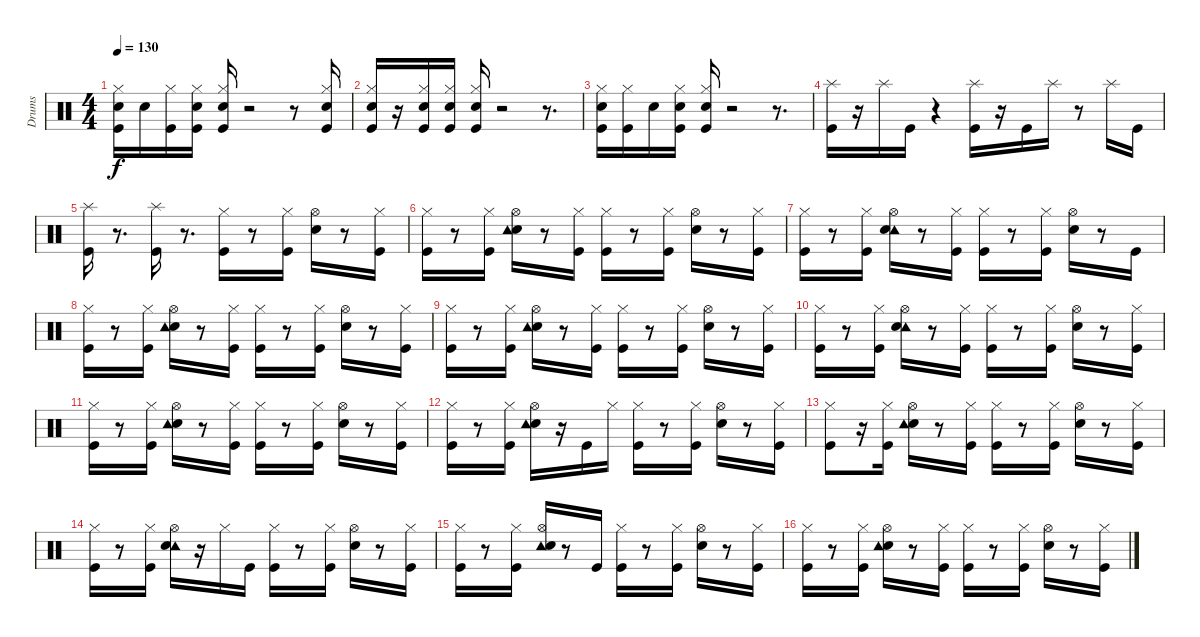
\track ("Drums" "Drums") {instrument percussion}
\staff {score}
\articulation defaults
\ts (4 4)
\tempo 130
\clef neutral
\ks c
("Electric Snare (hit)" "Hi-Hat (closed)" "Kick (hit)").16{dy f} "Electric Snare (hit)".16 ("Hi-Hat (closed)" "Kick (hit)").16 ("Electric Snare (hit)" "Hi-Hat (closed)" "Kick (hit)").16 ("Kick (hit)" "Hi-Hat (closed)" "Electric Snare (hit)").16 r.2 r.8 ("Kick (hit)" "Hi-Hat (closed)" "Electric Snare (hit)").16 |
("Electric Snare (hit)" "Hi-Hat (closed)" "Kick (hit)").16 r.16 ("Hi-Hat (closed)" "Kick (hit)" "Electric Snare (hit)").16 ("Hi-Hat (closed)" "Kick (hit)" "Electric Snare (hit)").16 ("Kick (hit)" "Electric Snare (hit)" "Hi-Hat (closed)").16 r.2 r.8{d} |
("Kick (hit)" "Hi-Hat (closed)" "Electric Snare (hit)").16 ("Kick (hit)" "Hi-Hat (closed)").16 "Electric Snare (hit)".16 ("Hi-Hat (closed)" "Kick (hit)" "Electric Snare (hit)").16 ("Kick (hit)" "Hi-Hat (closed)" "Electric Snare (hit)").16 r.2 r.8{d} |
("Kick (hit)" "Splash (hit)").16 r.16 "Splash (hit)".16 "Kick (hit)".16 r.4 ("Kick (hit)" "Splash (hit)").16 r.16 "Kick (hit)".16 "Splash (hit)".16 r.8 "Splash (hit)".16 "Kick (hit)".16 |
("Kick (hit)" "Splash (hit)").16 r.8{d} ("Kick (hit)" "Splash (hit)").16 r.8{d} ("Hi-Hat (closed)" "Kick (hit)").16 r.8 ("Kick (hit)" "Hi-Hat (closed)").16 ("Electric Snare (hit)" "Hi-Hat (open)").16 r.8 ("Kick (hit)" "Hi-Hat (closed)").16 |
("Kick (hit)" "Hi-Hat (closed)").16 r.8 ("Kick (hit)" "Hi-Hat (closed)").16 ("Electric Snare (hit)" "Tambourine (hit)" "Hi-Hat (open)").16 r.8 ("Kick (hit)" "Hi-Hat (closed)").16 ("Kick (hit)" "Hi-Hat (closed)").16 r.8 ("Kick (hit)" "Hi-Hat (closed)").16 ("Hi-Hat (open)" "Electric Snare (hit)").16 r.8 ("Kick (hit)" "Hi-Hat (closed)").16 |
("Kick (hit)" "Hi-Hat (closed)").16 r.8 ("Hi-Hat (closed)" "Kick (hit)").16 ("Tambourine (hit)" "Electric Snare (hit)" "Hi-Hat (open)").16 r.8 ("Hi-Hat (closed)" "Kick (hit)").16 ("Kick (hit)" "Hi-Hat (closed)").16 r.8 ("Kick (hit)" "Hi-Hat (closed)").16 ("Electric Snare (hit)" "Hi-Hat (open)").16 r.8 "Kick (hit)".16 |
("Kick (hit)" "Hi-Hat (closed)").16 r.8 ("Kick (hit)" "Hi-Hat (closed)").16 ("Electric Snare (hit)" "Hi-Hat (open)" "Tambourine (hit)").16 r.8 ("Hi-Hat (closed)" "Kick (hit)").16 ("Hi-Hat (closed)" "Kick (hit)").16 r.8 ("Kick (hit)" "Hi-Hat (closed)").16 ("Electric Snare (hit)" "Hi-Hat (open)").16 r.8 ("Hi-Hat (closed)" "Kick (hit)").16 |
("Kick (hit)" "Hi-Hat (closed)").16 r.8 ("Kick (hit)" "Hi-Hat (closed)").16 ("Electric Snare (hit)" "Tambourine (hit)" "Hi-Hat (open)").16 r.8 ("Kick (hit)" "Hi-Hat (closed)").16 ("Kick (hit)" "Hi-Hat (closed)").16 r.8 ("Kick (hit)" "Hi-Hat (closed)").16 ("Electric Snare (hit)" "Hi-Hat (open)").16 r.8 ("Kick (hit)" "Hi-Hat (closed)").16 |
("Kick (hit)" "Hi-Hat (closed)").16 r.8 ("Hi-Hat (closed)" "Kick (hit)").16 ("Hi-Hat (open)" "Tambourine (hit)" "Electric Snare (hit)").16 r.8 ("Kick (hit)" "Hi-Hat (closed)").16 ("Kick (hit)" "Hi-Hat (closed)").16 r.8 ("Hi-Hat (closed)" "Kick (hit)").16 ("Electric Snare (hit)" "Hi-Hat (open)").16 r.8 ("Kick (hit)" "Hi-Hat (closed)").16 |
("Kick (hit)" "Hi-Hat (closed)").16 r.8 ("Kick (hit)" "Hi-Hat (closed)").16 ("Electric Snare (hit)" "Tambourine (hit)" "Hi-Hat (open)").16 r.8 ("Hi-Hat (closed)" "Kick (hit)").16 ("Kick (hit)" "Hi-Hat (closed)").16 r.8 ("Hi-Hat (closed)" "Kick (hit)").16 ("Hi-Hat (open)" "Electric Snare (hit)").16 r.8 ("Hi-Hat (closed)" "Kick (hit)").16 |
("Hi-Hat (closed)" "Kick (hit)").16 r.8 ("Hi-Hat (closed)" "Kick (hit)").16 ("Electric Snare (hit)" "Tambourine (hit)" "Hi-Hat (open)").16 r.16 "Kick (hit)".16 "Hi-Hat (closed)".16 ("Kick (hit)" "Hi-Hat (closed)").16 r.8 ("Hi-Hat (closed)" "Kick (hit)").16 ("Electric Snare (hit)" "Hi-Hat (open)").16 r.8 ("Kick (hit)" "Hi-Hat (closed)").16 |
("Kick (hit)" "Hi-Hat (closed)").8 r.16 ("Kick (hit)" "Hi-Hat (closed)").16 ("Hi-Hat (open)" "Electric Snare (hit)" "Tambourine (hit)").16 r.8 ("Kick (hit)" "Hi-Hat (closed)").16 ("Hi-Hat (closed)" "Kick (hit)").16 r.8 ("Kick (hit)" "Hi-Hat (closed)").16 ("Electric Snare (hit)" "Hi-Hat (open)").16 r.8 ("Kick (hit)" "Hi-Hat (closed)").16 |
("Kick (hit)" "Hi-Hat (closed)").16 r.8 ("Kick (hit)" "Hi-Hat (closed)").16 ("Hi-Hat (open)" "Tambourine (hit)" "Electric Snare (hit)").16 r.16 "Hi-Hat (closed)".16 "Kick (hit)".16 ("Hi-Hat (closed)" "Kick (hit)").16 r.8 ("Kick (hit)" "Hi-Hat (closed)").16 ("Electric Snare (hit)" "Hi-Hat (open)").16 r.8 ("Hi-Hat (closed)" "Kick (hit)").16 |
("Kick (hit)" "Hi-Hat (closed)").16 r.8 ("Hi-Hat (closed)" "Kick (hit)").16 ("Tambourine (hit)" "Electric Snare (hit)" "Hi-Hat (open)").16 r.8 "Kick (hit)".16 ("Kick (hit)" "Hi-Hat (closed)").16 r.8 ("Kick (hit)" "Hi-Hat (closed)").16 ("Electric Snare (hit)" "Hi-Hat (open)").16 r.8 ("Kick (hit)" "Hi-Hat (closed)").16 |
("Kick (hit)" "Hi-Hat (closed)").16 r.8 ("Kick (hit)" "Hi-Hat (closed)").16 ("Electric Snare (hit)" "Tambourine (hit)" "Hi-Hat (open)").16 r.8 ("Hi-Hat (closed)" "Kick (hit)").16 ("Kick (hit)" "Hi-Hat (closed)").16 r.8 ("Kick (hit)" "Hi-Hat (closed)").16 ("Electric Snare (hit)" "Hi-Hat (open)").16 r.8 ("Hi-Hat (closed)" "Kick (hit)").16
